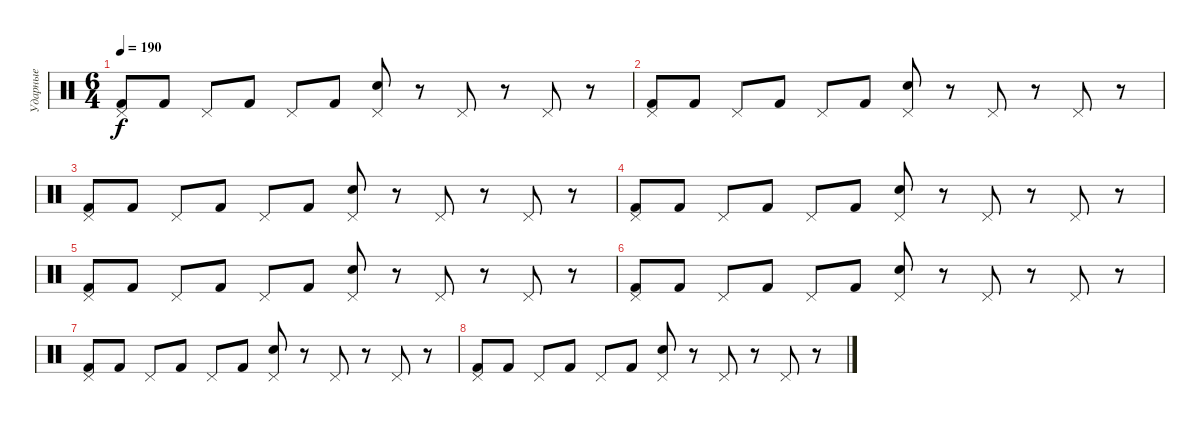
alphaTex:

\track ("Ударные" "Ударные") {instrument percussion}
\staff {score}
\articulation defaults
\ts (6 4)
\tempo 190
\clef neutral
\ks c
("Pedal Hi-Hat (hit)" "Kick (hit) 2").8{dy f} "Kick (hit) 2".8 "Pedal Hi-Hat (hit)".8 "Kick (hit) 2".8 "Pedal Hi-Hat (hit)".8 "Kick (hit) 2".8 ("Pedal Hi-Hat (hit)" "Snare (hit) 2").8 r.8 "Pedal Hi-Hat (hit)".8 r.8 "Pedal Hi-Hat (hit)".8 r.8 |
("Pedal Hi-Hat (hit)" "Kick (hit) 2").8 "Kick (hit) 2".8 "Pedal Hi-Hat (hit)".8 "Kick (hit) 2".8 "Pedal Hi-Hat (hit)".8 "Kick (hit) 2".8 ("Pedal Hi-Hat (hit)" "Snare (hit) 2").8 r.8 "Pedal Hi-Hat (hit)".8 r.8 "Pedal Hi-Hat (hit)".8 r.8 |
("Pedal Hi-Hat (hit)" "Kick (hit) 2").8 "Kick (hit) 2".8 "Pedal Hi-Hat (hit)".8 "Kick (hit) 2".8 "Pedal Hi-Hat (hit)".8 "Kick (hit) 2".8 ("Pedal Hi-Hat (hit)" "Snare (hit) 2").8 r.8 "Pedal Hi-Hat (hit)".8 r.8 "Pedal Hi-Hat (hit)".8 r.8 |
("Pedal Hi-Hat (hit)" "Kick (hit) 2").8 "Kick (hit) 2".8 "Pedal Hi-Hat (hit)".8 "Kick (hit) 2".8 "Pedal Hi-Hat (hit)".8 "Kick (hit) 2".8 ("Pedal Hi-Hat (hit)" "Snare (hit) 2").8 r.8 "Pedal Hi-Hat (hit)".8 r.8 "Pedal Hi-Hat (hit)".8 r.8 |
("Pedal Hi-Hat (hit)" "Kick (hit) 2").8 "Kick (hit) 2".8 "Pedal Hi-Hat (hit)".8 "Kick (hit) 2".8 "Pedal Hi-Hat (hit)".8 "Kick (hit) 2".8 ("Pedal Hi-Hat (hit)" "Snare (hit) 2").8 r.8 "Pedal Hi-Hat (hit)".8 r.8 "Pedal Hi-Hat (hit)".8 r.8 |
("Pedal Hi-Hat (hit)" "Kick (hit) 2").8 "Kick (hit) 2".8 "Pedal Hi-Hat (hit)".8 "Kick (hit) 2".8 "Pedal Hi-Hat (hit)".8 "Kick (hit) 2".8 ("Pedal Hi-Hat (hit)" "Snare (hit) 2").8 r.8 "Pedal Hi-Hat (hit)".8 r.8 "Pedal Hi-Hat (hit)".8 r.8 |
("Pedal Hi-Hat (hit)" "Kick (hit) 2").8 "Kick (hit) 2".8 "Pedal Hi-Hat (hit)".8 "Kick (hit) 2".8 "Pedal Hi-Hat (hit)".8 "Kick (hit) 2".8 ("Pedal Hi-Hat (hit)" "Snare (hit) 2").8 r.8 "Pedal Hi-Hat (hit)".8 r.8 "Pedal Hi-Hat (hit)".8 r.8 |
("Pedal Hi-Hat (hit)" "Kick (hit) 2").8 "Kick (hit) 2".8 "Pedal Hi-Hat (hit)".8 "Kick (hit) 2".8 "Pedal Hi-Hat (hit)".8 "Kick (hit) 2".8 ("Pedal Hi-Hat (hit)" "Snare (hit) 2").8 r.8 "Pedal Hi-Hat (hit)".8 r.8 "Pedal Hi-Hat (hit)".8 r.8
